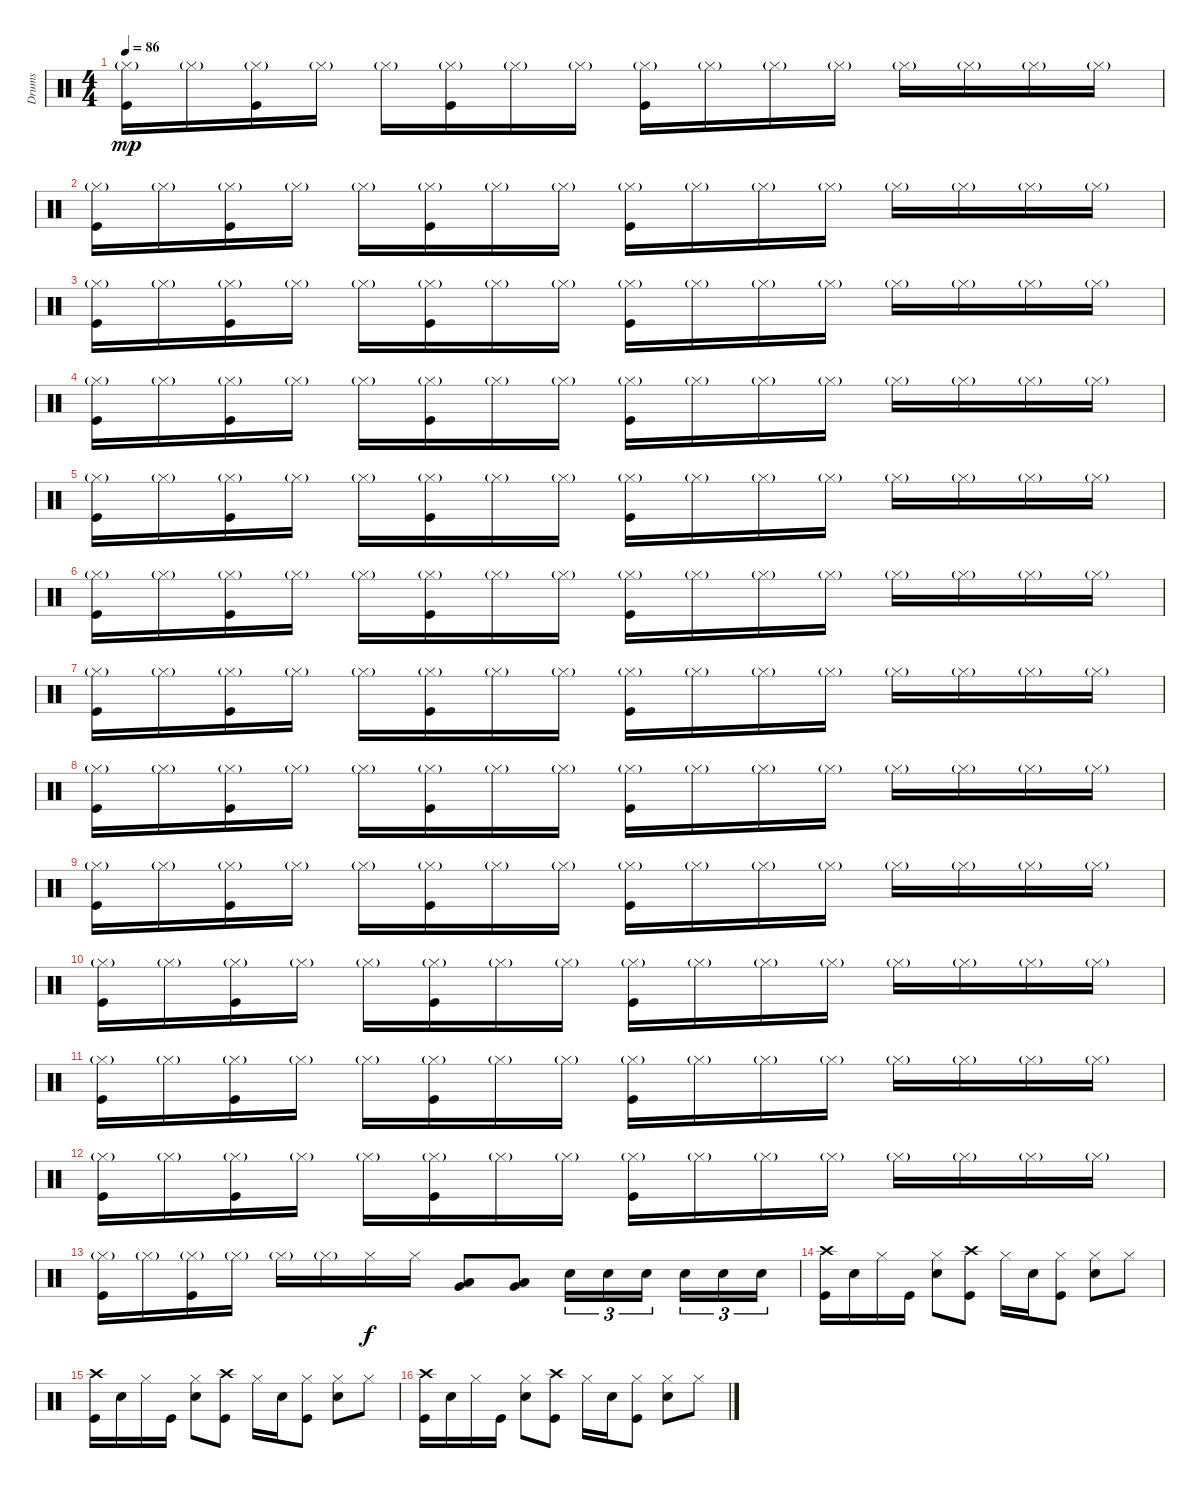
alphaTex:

\track ("Drums" "Drums") {instrument percussion}
\staff {score}
\articulation defaults
\ts (4 4)
\tempo 86
\clef neutral
\ks c
("Hi-Hat (closed)"{g} "Kick (hit)").16{dy mp} "Hi-Hat (closed)"{g}.16 ("Hi-Hat (closed)"{g} "Kick (hit)").16 "Hi-Hat (closed)"{g}.16 "Hi-Hat (closed)"{g}.16 ("Hi-Hat (closed)"{g} "Kick (hit)").16 "Hi-Hat (closed)"{g}.16 "Hi-Hat (closed)"{g}.16 ("Hi-Hat (closed)"{g} "Kick (hit)").16 "Hi-Hat (closed)"{g}.16 "Hi-Hat (closed)"{g}.16 "Hi-Hat (closed)"{g}.16 "Hi-Hat (closed)"{g}.16 "Hi-Hat (closed)"{g}.16 "Hi-Hat (closed)"{g}.16 "Hi-Hat (closed)"{g}.16 |
("Hi-Hat (closed)"{g} "Kick (hit)").16 "Hi-Hat (closed)"{g}.16 ("Hi-Hat (closed)"{g} "Kick (hit)").16 "Hi-Hat (closed)"{g}.16 "Hi-Hat (closed)"{g}.16 ("Hi-Hat (closed)"{g} "Kick (hit)").16 "Hi-Hat (closed)"{g}.16 "Hi-Hat (closed)"{g}.16 ("Hi-Hat (closed)"{g} "Kick (hit)").16 "Hi-Hat (closed)"{g}.16 "Hi-Hat (closed)"{g}.16 "Hi-Hat (closed)"{g}.16 "Hi-Hat (closed)"{g}.16 "Hi-Hat (closed)"{g}.16 "Hi-Hat (closed)"{g}.16 "Hi-Hat (closed)"{g}.16 |
("Hi-Hat (closed)"{g} "Kick (hit)").16 "Hi-Hat (closed)"{g}.16 ("Hi-Hat (closed)"{g} "Kick (hit)").16 "Hi-Hat (closed)"{g}.16 "Hi-Hat (closed)"{g}.16 ("Hi-Hat (closed)"{g} "Kick (hit)").16 "Hi-Hat (closed)"{g}.16 "Hi-Hat (closed)"{g}.16 ("Hi-Hat (closed)"{g} "Kick (hit)").16 "Hi-Hat (closed)"{g}.16 "Hi-Hat (closed)"{g}.16 "Hi-Hat (closed)"{g}.16 "Hi-Hat (closed)"{g}.16 "Hi-Hat (closed)"{g}.16 "Hi-Hat (closed)"{g}.16 "Hi-Hat (closed)"{g}.16 |
("Hi-Hat (closed)"{g} "Kick (hit)").16 "Hi-Hat (closed)"{g}.16 ("Hi-Hat (closed)"{g} "Kick (hit)").16 "Hi-Hat (closed)"{g}.16 "Hi-Hat (closed)"{g}.16 ("Hi-Hat (closed)"{g} "Kick (hit)").16 "Hi-Hat (closed)"{g}.16 "Hi-Hat (closed)"{g}.16 ("Hi-Hat (closed)"{g} "Kick (hit)").16 "Hi-Hat (closed)"{g}.16 "Hi-Hat (closed)"{g}.16 "Hi-Hat (closed)"{g}.16 "Hi-Hat (closed)"{g}.16 "Hi-Hat (closed)"{g}.16 "Hi-Hat (closed)"{g}.16 "Hi-Hat (closed)"{g}.16 |
("Hi-Hat (closed)"{g} "Kick (hit)").16 "Hi-Hat (closed)"{g}.16 ("Hi-Hat (closed)"{g} "Kick (hit)").16 "Hi-Hat (closed)"{g}.16 "Hi-Hat (closed)"{g}.16 ("Hi-Hat (closed)"{g} "Kick (hit)").16 "Hi-Hat (closed)"{g}.16 "Hi-Hat (closed)"{g}.16 ("Hi-Hat (closed)"{g} "Kick (hit)").16 "Hi-Hat (closed)"{g}.16 "Hi-Hat (closed)"{g}.16 "Hi-Hat (closed)"{g}.16 "Hi-Hat (closed)"{g}.16 "Hi-Hat (closed)"{g}.16 "Hi-Hat (closed)"{g}.16 "Hi-Hat (closed)"{g}.16 |
("Hi-Hat (closed)"{g} "Kick (hit)").16 "Hi-Hat (closed)"{g}.16 ("Hi-Hat (closed)"{g} "Kick (hit)").16 "Hi-Hat (closed)"{g}.16 "Hi-Hat (closed)"{g}.16 ("Hi-Hat (closed)"{g} "Kick (hit)").16 "Hi-Hat (closed)"{g}.16 "Hi-Hat (closed)"{g}.16 ("Hi-Hat (closed)"{g} "Kick (hit)").16 "Hi-Hat (closed)"{g}.16 "Hi-Hat (closed)"{g}.16 "Hi-Hat (closed)"{g}.16 "Hi-Hat (closed)"{g}.16 "Hi-Hat (closed)"{g}.16 "Hi-Hat (closed)"{g}.16 "Hi-Hat (closed)"{g}.16 |
("Hi-Hat (closed)"{g} "Kick (hit)").16 "Hi-Hat (closed)"{g}.16 ("Hi-Hat (closed)"{g} "Kick (hit)").16 "Hi-Hat (closed)"{g}.16 "Hi-Hat (closed)"{g}.16 ("Hi-Hat (closed)"{g} "Kick (hit)").16 "Hi-Hat (closed)"{g}.16 "Hi-Hat (closed)"{g}.16 ("Hi-Hat (closed)"{g} "Kick (hit)").16 "Hi-Hat (closed)"{g}.16 "Hi-Hat (closed)"{g}.16 "Hi-Hat (closed)"{g}.16 "Hi-Hat (closed)"{g}.16 "Hi-Hat (closed)"{g}.16 "Hi-Hat (closed)"{g}.16 "Hi-Hat (closed)"{g}.16 |
("Hi-Hat (closed)"{g} "Kick (hit)").16 "Hi-Hat (closed)"{g}.16 ("Hi-Hat (closed)"{g} "Kick (hit)").16 "Hi-Hat (closed)"{g}.16 "Hi-Hat (closed)"{g}.16 ("Hi-Hat (closed)"{g} "Kick (hit)").16 "Hi-Hat (closed)"{g}.16 "Hi-Hat (closed)"{g}.16 ("Hi-Hat (closed)"{g} "Kick (hit)").16 "Hi-Hat (closed)"{g}.16 "Hi-Hat (closed)"{g}.16 "Hi-Hat (closed)"{g}.16 "Hi-Hat (closed)"{g}.16 "Hi-Hat (closed)"{g}.16 "Hi-Hat (closed)"{g}.16 "Hi-Hat (closed)"{g}.16 |
("Hi-Hat (closed)"{g} "Kick (hit)").16 "Hi-Hat (closed)"{g}.16 ("Hi-Hat (closed)"{g} "Kick (hit)").16 "Hi-Hat (closed)"{g}.16 "Hi-Hat (closed)"{g}.16 ("Hi-Hat (closed)"{g} "Kick (hit)").16 "Hi-Hat (closed)"{g}.16 "Hi-Hat (closed)"{g}.16 ("Hi-Hat (closed)"{g} "Kick (hit)").16 "Hi-Hat (closed)"{g}.16 "Hi-Hat (closed)"{g}.16 "Hi-Hat (closed)"{g}.16 "Hi-Hat (closed)"{g}.16 "Hi-Hat (closed)"{g}.16 "Hi-Hat (closed)"{g}.16 "Hi-Hat (closed)"{g}.16 |
("Hi-Hat (closed)"{g} "Kick (hit)").16 "Hi-Hat (closed)"{g}.16 ("Hi-Hat (closed)"{g} "Kick (hit)").16 "Hi-Hat (closed)"{g}.16 "Hi-Hat (closed)"{g}.16 ("Hi-Hat (closed)"{g} "Kick (hit)").16 "Hi-Hat (closed)"{g}.16 "Hi-Hat (closed)"{g}.16 ("Hi-Hat (closed)"{g} "Kick (hit)").16 "Hi-Hat (closed)"{g}.16 "Hi-Hat (closed)"{g}.16 "Hi-Hat (closed)"{g}.16 "Hi-Hat (closed)"{g}.16 "Hi-Hat (closed)"{g}.16 "Hi-Hat (closed)"{g}.16 "Hi-Hat (closed)"{g}.16 |
("Hi-Hat (closed)"{g} "Kick (hit)").16 "Hi-Hat (closed)"{g}.16 ("Hi-Hat (closed)"{g} "Kick (hit)").16 "Hi-Hat (closed)"{g}.16 "Hi-Hat (closed)"{g}.16 ("Hi-Hat (closed)"{g} "Kick (hit)").16 "Hi-Hat (closed)"{g}.16 "Hi-Hat (closed)"{g}.16 ("Hi-Hat (closed)"{g} "Kick (hit)").16 "Hi-Hat (closed)"{g}.16 "Hi-Hat (closed)"{g}.16 "Hi-Hat (closed)"{g}.16 "Hi-Hat (closed)"{g}.16 "Hi-Hat (closed)"{g}.16 "Hi-Hat (closed)"{g}.16 "Hi-Hat (closed)"{g}.16 |
("Hi-Hat (closed)"{g} "Kick (hit)").16 "Hi-Hat (closed)"{g}.16 ("Hi-Hat (closed)"{g} "Kick (hit)").16 "Hi-Hat (closed)"{g}.16 "Hi-Hat (closed)"{g}.16 ("Hi-Hat (closed)"{g} "Kick (hit)").16 "Hi-Hat (closed)"{g}.16 "Hi-Hat (closed)"{g}.16 ("Hi-Hat (closed)"{g} "Kick (hit)").16 "Hi-Hat (closed)"{g}.16 "Hi-Hat (closed)"{g}.16 "Hi-Hat (closed)"{g}.16 "Hi-Hat (closed)"{g}.16 "Hi-Hat (closed)"{g}.16 "Hi-Hat (closed)"{g}.16 "Hi-Hat (closed)"{g}.16 |
("Hi-Hat (closed)"{g} "Kick (hit)").16 "Hi-Hat (closed)"{g}.16 ("Hi-Hat (closed)"{g} "Kick (hit)").16 "Hi-Hat (closed)"{g}.16 "Hi-Hat (closed)"{g}.16 "Hi-Hat (closed)"{g}.16 "Hi-Hat (closed)".16{dy f} "Hi-Hat (closed)".16 ("Very Low Tom (hit)" "Low Floor Tom (hit)").8 ("Very Low Tom (hit)" "Low Floor Tom (hit)").8 "Snare (hit) 2".16{tu (3 2)} "Snare (hit) 2".16{tu (3 2)} "Snare (hit) 2".16{tu (3 2) beam splitsecondary} "Snare (hit) 2".16{tu (3 2)} "Snare (hit) 2".16{tu (3 2)} "Snare (hit) 2".16{tu (3 2)} |
("Crash high (hit)" "Kick (hit)").16 "Snare (hit) 2".16 "Hi-Hat (closed)".16 "Kick (hit)".16 ("Hi-Hat (closed)" "Snare (hit) 2").8 ("Crash high (hit)" "Kick (hit)").8 "Hi-Hat (closed)".16 "Snare (hit) 2".16 ("Hi-Hat (closed)" "Kick (hit)").8 ("Hi-Hat (closed)" "Snare (hit) 2").8 "Hi-Hat (closed)".8 |
("Crash high (hit)" "Kick (hit)").16 "Snare (hit) 2".16 "Hi-Hat (closed)".16 "Kick (hit)".16 ("Hi-Hat (closed)" "Snare (hit) 2").8 ("Crash high (hit)" "Kick (hit)").8 "Hi-Hat (closed)".16 "Snare (hit) 2".16 ("Hi-Hat (closed)" "Kick (hit)").8 ("Hi-Hat (closed)" "Snare (hit) 2").8 "Hi-Hat (closed)".8 |
("Crash high (hit)" "Kick (hit)").16 "Snare (hit) 2".16 "Hi-Hat (closed)".16 "Kick (hit)".16 ("Hi-Hat (closed)" "Snare (hit) 2").8 ("Crash high (hit)" "Kick (hit)").8 "Hi-Hat (closed)".16 "Snare (hit) 2".16 ("Hi-Hat (closed)" "Kick (hit)").8 ("Hi-Hat (closed)" "Snare (hit) 2").8 "Hi-Hat (closed)".8
